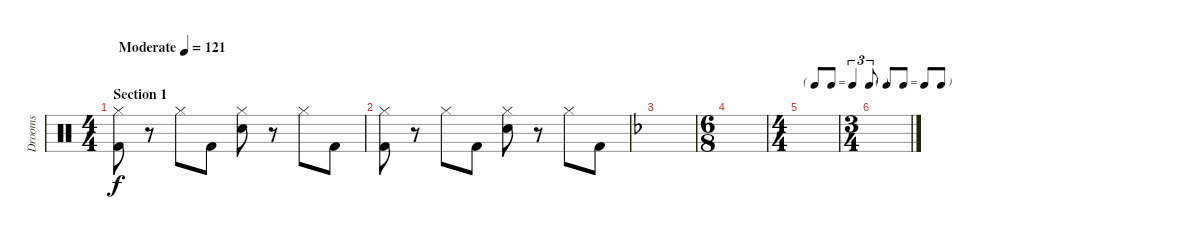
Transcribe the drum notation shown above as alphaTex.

\track ("Drooms" "Drooms") {instrument percussion}
\staff {score}
\articulation defaults
\ts (4 4)
\section ("" "Section 1")
\tempo (121 "Moderate")
\clef neutral
\ks c
("Hi-Hat (closed)" "Kick (hit) 2").8{dy f} r.8 "Hi-Hat (closed)".8 "Kick (hit) 2".8 ("Hi-Hat (closed)" "Snare (hit) 2").8 r.8 "Hi-Hat (closed)".8 "Kick (hit) 2".8 |
("Hi-Hat (closed)" "Kick (hit) 2").8 r.8 "Hi-Hat (closed)".8 "Kick (hit) 2".8 ("Hi-Hat (closed)" "Snare (hit) 2").8 r.8 "Hi-Hat (closed)".8 "Kick (hit) 2".8 |
\ks dminor
|
\ts (6 8)
|
\ts (4 4)
\tf triplet8th
|
\ts (3 4)
\tf none
